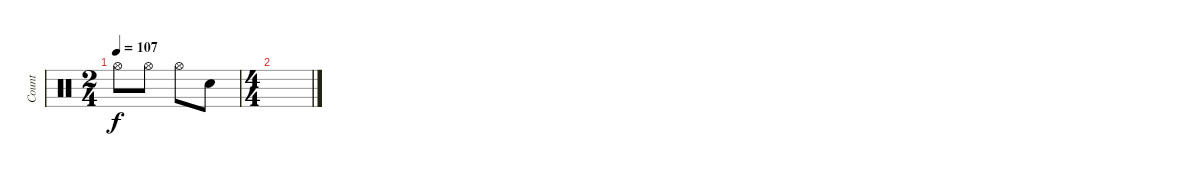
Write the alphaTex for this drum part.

\track ("Count" "Count") {instrument percussion}
\staff {score}
\articulation defaults
\ts (2 4)
\tempo 107
\clef neutral
\ks c "Hi-Hat (open)".8{dy f} "Hi-Hat (open)".8 "Hi-Hat (open)".8 "Snare (hit) 2".8
|
\ts (4 4)
